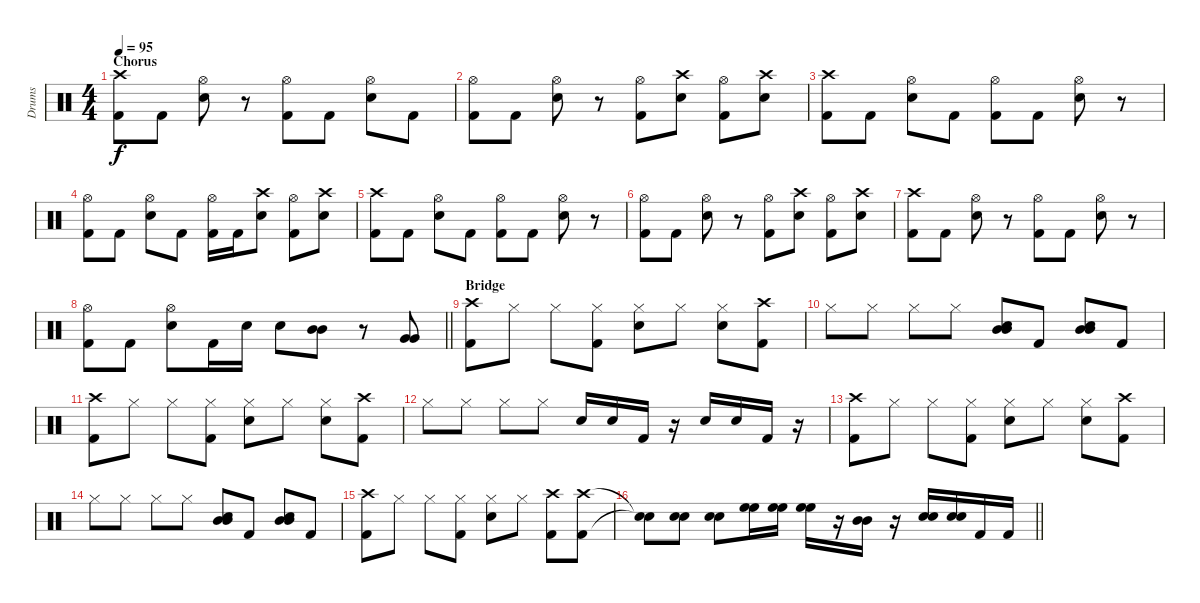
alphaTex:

\track ("Drums" "Drums") {instrument percussion}
\staff {score}
\articulation defaults
\ts (4 4)
\section ("" "Chorus")
\tempo 95
\clef neutral
\ks c
("Crash high (hit)" "Kick (hit) 2").8{dy f} "Kick (hit) 2".8 ("Hi-Hat (open)" "Snare (hit) 2").8 r.8 ("Hi-Hat (open)" "Kick (hit) 2").8 "Kick (hit) 2".8 ("Hi-Hat (open)" "Snare (hit) 2").8 "Kick (hit) 2".8 |
("Hi-Hat (open)" "Kick (hit) 2").8 "Kick (hit) 2".8 ("Hi-Hat (open)" "Snare (hit) 2").8 r.8 ("Hi-Hat (open)" "Kick (hit) 2").8 ("Crash high (hit)" "Snare (hit) 2").8 ("Hi-Hat (open)" "Kick (hit) 2").8 ("Crash high (hit)" "Snare (hit) 2").8 |
("Crash high (hit)" "Kick (hit) 2").8 "Kick (hit) 2".8 ("Hi-Hat (open)" "Snare (hit) 2").8 "Kick (hit) 2".8 ("Hi-Hat (open)" "Kick (hit) 2").8 "Kick (hit) 2".8 ("Hi-Hat (open)" "Snare (hit) 2").8 r.8 |
("Hi-Hat (open)" "Kick (hit) 2").8 "Kick (hit) 2".8 ("Hi-Hat (open)" "Snare (hit) 2").8 "Kick (hit) 2".8 ("Hi-Hat (open)" "Kick (hit) 2").16 "Kick (hit) 2".16 ("Crash high (hit)" "Snare (hit) 2").8 ("Hi-Hat (open)" "Kick (hit) 2").8 ("Crash high (hit)" "Snare (hit) 2").8 |
("Crash high (hit)" "Kick (hit) 2").8 "Kick (hit) 2".8 ("Hi-Hat (open)" "Snare (hit) 2").8 "Kick (hit) 2".8 ("Hi-Hat (open)" "Kick (hit) 2").8 "Kick (hit) 2".8 ("Hi-Hat (open)" "Snare (hit) 2").8 r.8 |
("Hi-Hat (open)" "Kick (hit) 2").8 "Kick (hit) 2".8 ("Hi-Hat (open)" "Snare (hit) 2").8 r.8 ("Hi-Hat (open)" "Kick (hit) 2").8 ("Crash high (hit)" "Snare (hit) 2").8 ("Hi-Hat (open)" "Kick (hit) 2").8 ("Crash high (hit)" "Snare (hit) 2").8 |
("Crash high (hit)" "Kick (hit) 2").8 "Kick (hit) 2".8 ("Hi-Hat (open)" "Snare (hit) 2").8 r.8 ("Hi-Hat (open)" "Kick (hit) 2").8 "Kick (hit) 2".8 ("Hi-Hat (open)" "Snare (hit) 2").8 r.8 |
\barLineRight lightlight
("Hi-Hat (open)" "Kick (hit) 2").8 "Kick (hit) 2".8 ("Hi-Hat (open)" "Snare (hit) 2").8 "Kick (hit) 2".16 "Snare (hit) 2".16 "Snare (hit) 2".8 ("Mid Tom (hit)" "Mid Tom (hit)").8 r.8 ("Very Low Tom (hit)" "Very Low Tom (hit)").8 |
\section ("" "Bridge")
("Crash high (hit)" "Kick (hit) 2").8 "Hi-Hat (closed)".8 "Hi-Hat (closed)".8 ("Hi-Hat (closed)" "Kick (hit) 2").8 ("Hi-Hat (closed)" "Snare (hit) 2").8 "Hi-Hat (closed)".8 ("Hi-Hat (closed)" "Snare (hit) 2").8 ("Crash high (hit)" "Kick (hit) 2").8 |
"Hi-Hat (closed)".8 "Hi-Hat (closed)".8 "Hi-Hat (closed)".8 "Hi-Hat (closed)".8 ("Snare (hit) 2" "Mid Tom (hit)" "Mid Tom (hit)").8 "Kick (hit) 2".8 ("Snare (hit) 2" "Mid Tom (hit)" "Mid Tom (hit)").8 "Kick (hit) 2".8 |
("Crash high (hit)" "Kick (hit) 2").8 "Hi-Hat (closed)".8 "Hi-Hat (closed)".8 ("Hi-Hat (closed)" "Kick (hit) 2").8 ("Hi-Hat (closed)" "Snare (hit) 2").8 "Hi-Hat (closed)".8 ("Hi-Hat (closed)" "Snare (hit) 2").8 ("Crash high (hit)" "Kick (hit) 2").8 |
"Hi-Hat (closed)".8 "Hi-Hat (closed)".8 "Hi-Hat (closed)".8 "Hi-Hat (closed)".8 "Snare (hit) 2".16 "Snare (hit) 2".16 "Kick (hit) 2".16 r.16 "Snare (hit) 2".16 "Snare (hit) 2".16 "Kick (hit) 2".16 r.16 |
("Crash high (hit)" "Kick (hit) 2").8 "Hi-Hat (closed)".8 "Hi-Hat (closed)".8 ("Hi-Hat (closed)" "Kick (hit) 2").8 ("Hi-Hat (closed)" "Snare (hit) 2").8 "Hi-Hat (closed)".8 ("Hi-Hat (closed)" "Snare (hit) 2").8 ("Crash high (hit)" "Kick (hit) 2").8 |
"Hi-Hat (closed)".8 "Hi-Hat (closed)".8 "Hi-Hat (closed)".8 "Hi-Hat (closed)".8 ("Snare (hit) 2" "Mid Tom (hit)" "Mid Tom (hit)").8 "Kick (hit) 2".8 ("Snare (hit) 2" "Mid Tom (hit)" "Mid Tom (hit)").8 "Kick (hit) 2".8 |
("Crash high (hit)" "Kick (hit) 2").8 "Hi-Hat (closed)".8 "Hi-Hat (closed)".8 ("Hi-Hat (closed)" "Kick (hit) 2").8 ("Hi-Hat (closed)" "Snare (hit) 2").8 "Hi-Hat (closed)".8 ("Crash high (hit)" "Kick (hit) 2").8 ("Crash high (hit)" "Kick (hit) 2").8 |
\barLineRight lightlight
("Snare (hit)"{t} "Snare (hit)"{t}).8 ("Snare (hit) 2" "Snare (hit) 2").8 ("Snare (hit) 2" "Snare (hit) 2").8 ("High Floor Tom (hit)" "High Floor Tom (hit)").16 ("High Floor Tom (hit)" "High Floor Tom (hit)").16 ("High Floor Tom (hit)" "High Floor Tom (hit)").16 r.16 ("Mid Tom (hit)" "Mid Tom (hit)").16 r.16 ("Snare (hit) 2" "Snare (hit) 2").16 ("Snare (hit) 2" "Snare (hit) 2").16 "Kick (hit) 2".16 "Kick (hit) 2".16
